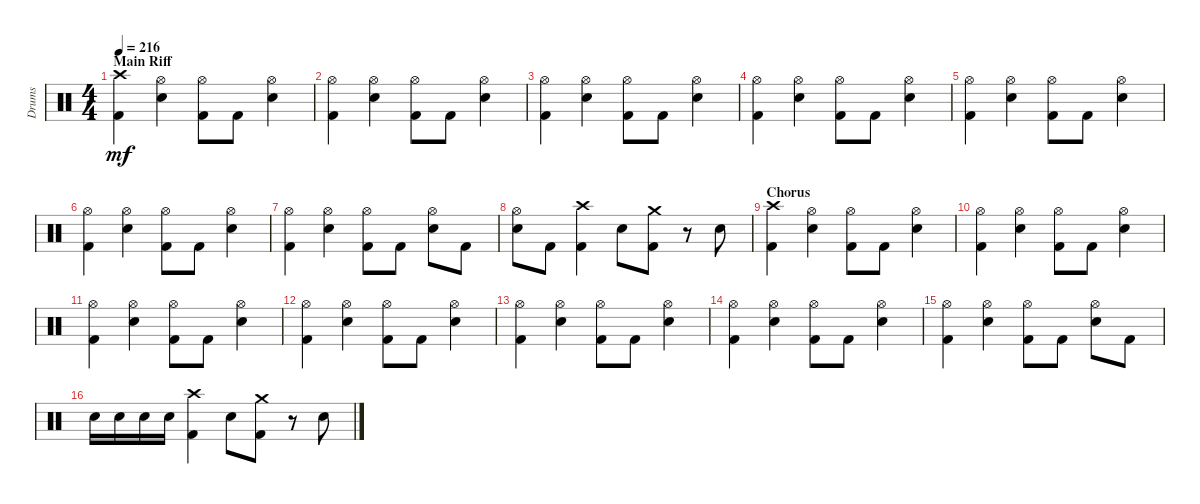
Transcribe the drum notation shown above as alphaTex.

\track ("Drums" "Drums") {instrument percussion}
\staff {score}
\articulation defaults
\ts (4 4)
\section ("" "Main Riff")
\tempo 216
\clef neutral
\ks aminor
("Crash high (hit)" "Kick (hit) 2").4{dy mf} ("Snare (hit) 2" "Hi-Hat (open)").4 ("Kick (hit) 2" "Hi-Hat (open)").8 "Kick (hit) 2".8 ("Hi-Hat (open)" "Snare (hit) 2").4 |
("Kick (hit) 2" "Hi-Hat (open)").4 ("Hi-Hat (open)" "Snare (hit) 2").4 ("Hi-Hat (open)" "Kick (hit) 2").8 "Kick (hit) 2".8 ("Snare (hit) 2" "Hi-Hat (open)").4 |
("Hi-Hat (open)" "Kick (hit) 2").4 ("Snare (hit) 2" "Hi-Hat (open)").4 ("Kick (hit) 2" "Hi-Hat (open)").8 "Kick (hit) 2".8 ("Snare (hit) 2" "Hi-Hat (open)").4 |
("Hi-Hat (open)" "Kick (hit) 2").4 ("Snare (hit) 2" "Hi-Hat (open)").4 ("Kick (hit) 2" "Hi-Hat (open)").8 "Kick (hit) 2".8 ("Hi-Hat (open)" "Snare (hit) 2").4 |
("Hi-Hat (open)" "Kick (hit) 2").4 ("Hi-Hat (open)" "Snare (hit) 2").4 ("Hi-Hat (open)" "Kick (hit) 2").8 "Kick (hit) 2".8 ("Snare (hit) 2" "Hi-Hat (open)").4 |
("Kick (hit) 2" "Hi-Hat (open)").4 ("Snare (hit) 2" "Hi-Hat (open)").4 ("Kick (hit) 2" "Hi-Hat (open)").8 "Kick (hit) 2".8 ("Hi-Hat (open)" "Snare (hit) 2").4 |
("Kick (hit) 2" "Hi-Hat (open)").4 ("Snare (hit) 2" "Hi-Hat (open)").4 ("Hi-Hat (open)" "Kick (hit) 2").8 "Kick (hit) 2".8 ("Hi-Hat (open)" "Snare (hit) 2").8 "Kick (hit) 2".8 |
("Hi-Hat (open)" "Snare (hit) 2").8 "Kick (hit) 2".8 ("Kick (hit) 2" "Crash high (hit)").4 "Snare (hit) 2".8 ("Kick (hit) 2" "Crash medium (hit)").8 r.8 "Snare (hit) 2".8 |
\section ("" "Chorus")
("Crash high (hit)" "Kick (hit) 2").4 ("Hi-Hat (open)" "Snare (hit) 2").4 ("Kick (hit) 2" "Hi-Hat (open)").8 "Kick (hit) 2".8 ("Hi-Hat (open)" "Snare (hit) 2").4 |
("Kick (hit) 2" "Hi-Hat (open)").4 ("Hi-Hat (open)" "Snare (hit) 2").4 ("Hi-Hat (open)" "Kick (hit) 2").8 "Kick (hit) 2".8 ("Snare (hit) 2" "Hi-Hat (open)").4 |
("Kick (hit) 2" "Hi-Hat (open)").4 ("Snare (hit) 2" "Hi-Hat (open)").4 ("Kick (hit) 2" "Hi-Hat (open)").8 "Kick (hit) 2".8 ("Hi-Hat (open)" "Snare (hit) 2").4 |
("Hi-Hat (open)" "Kick (hit) 2").4 ("Snare (hit) 2" "Hi-Hat (open)").4 ("Hi-Hat (open)" "Kick (hit) 2").8 "Kick (hit) 2".8 ("Snare (hit) 2" "Hi-Hat (open)").4 |
("Kick (hit) 2" "Hi-Hat (open)").4 ("Snare (hit) 2" "Hi-Hat (open)").4 ("Hi-Hat (open)" "Kick (hit) 2").8 "Kick (hit) 2".8 ("Hi-Hat (open)" "Snare (hit) 2").4 |
("Kick (hit) 2" "Hi-Hat (open)").4 ("Hi-Hat (open)" "Snare (hit) 2").4 ("Kick (hit) 2" "Hi-Hat (open)").8 "Kick (hit) 2".8 ("Snare (hit) 2" "Hi-Hat (open)").4 |
("Kick (hit) 2" "Hi-Hat (open)").4 ("Hi-Hat (open)" "Snare (hit) 2").4 ("Hi-Hat (open)" "Kick (hit) 2").8 "Kick (hit) 2".8 ("Snare (hit) 2" "Hi-Hat (open)").8 "Kick (hit) 2".8 |
"Snare (hit) 2".16 "Snare (hit) 2".16 "Snare (hit) 2".16 "Snare (hit) 2".16 ("Kick (hit) 2" "Crash high (hit)").4 "Snare (hit) 2".8 ("Kick (hit) 2" "Crash medium (hit)").8 r.8 "Snare (hit) 2".8
